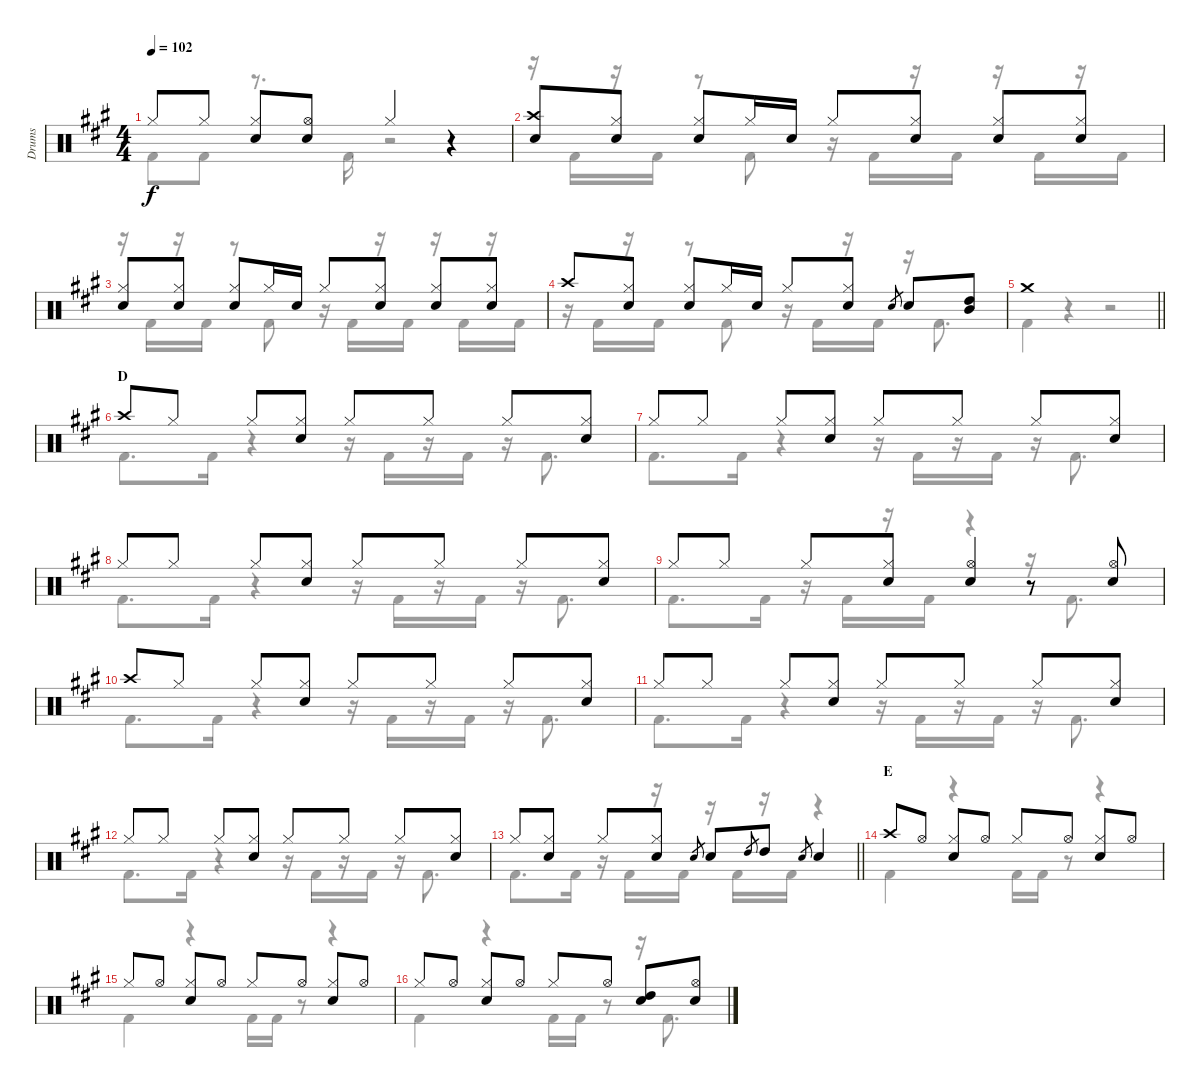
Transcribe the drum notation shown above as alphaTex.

\track ("Drums" "Drums") {instrument percussion}
\staff {score}
\articulation defaults
\voice
\ts (4 4)
\tempo 102
\clef neutral
\ks a "Hi-Hat (closed)".8{dy f} "Hi-Hat (closed)".8
("Hi-Hat (closed)" "Snare (hit) 2").8 ("Hi-Hat (open)" "Snare (hit) 2").8 "Hi-Hat (closed)".4 r.4 |
("Crash high (hit)" "Snare (hit) 2").8 ("Hi-Hat (closed)" "Snare (hit) 2").8 ("Hi-Hat (closed)" "Snare (hit) 2").8 "Hi-Hat (closed)".16 "Snare (hit) 2".16 "Hi-Hat (closed)".8 ("Hi-Hat (closed)" "Snare (hit) 2").8 ("Hi-Hat (closed)" "Snare (hit) 2").8 ("Hi-Hat (closed)" "Snare (hit) 2").8 |
("Hi-Hat (closed)" "Snare (hit) 2").8 ("Hi-Hat (closed)" "Snare (hit) 2").8 ("Hi-Hat (closed)" "Snare (hit) 2").8 "Hi-Hat (closed)".16 "Snare (hit) 2".16 "Hi-Hat (closed)".8 ("Hi-Hat (closed)" "Snare (hit) 2").8 ("Hi-Hat (closed)" "Snare (hit) 2").8 ("Hi-Hat (closed)" "Snare (hit) 2").8 |
"Crash high (hit)".8 ("Hi-Hat (closed)" "Snare (hit) 2").8 ("Hi-Hat (closed)" "Snare (hit) 2").8 "Hi-Hat (closed)".16 "Snare (hit) 2".16 "Hi-Hat (closed)".8 ("Hi-Hat (closed)" "Snare (hit) 2").8 "Snare (hit) 2".8{gr} "Snare (hit) 2".8 ("High Tom (hit)" "Mid Tom (hit)").8 |
\barLineRight lightlight "Crash medium (hit)".1
|
\section ("" "D")
"Crash high (hit)".8 "Hi-Hat (closed)".8 "Hi-Hat (closed)".8 ("Hi-Hat (closed)" "Snare (hit) 2").8 "Hi-Hat (closed)".8 "Hi-Hat (closed)".8 "Hi-Hat (closed)".8 ("Hi-Hat (closed)" "Snare (hit) 2").8 |
"Hi-Hat (closed)".8 "Hi-Hat (closed)".8 "Hi-Hat (closed)".8 ("Hi-Hat (closed)" "Snare (hit) 2").8 "Hi-Hat (closed)".8 "Hi-Hat (closed)".8 "Hi-Hat (closed)".8 ("Hi-Hat (closed)" "Snare (hit) 2").8 |
"Hi-Hat (closed)".8 "Hi-Hat (closed)".8 "Hi-Hat (closed)".8 ("Hi-Hat (closed)" "Snare (hit) 2").8 "Hi-Hat (closed)".8 "Hi-Hat (closed)".8 "Hi-Hat (closed)".8 ("Hi-Hat (closed)" "Snare (hit) 2").8 |
"Hi-Hat (closed)".8 "Hi-Hat (closed)".8 "Hi-Hat (closed)".8 ("Hi-Hat (closed)" "Snare (hit) 2").8 ("Hi-Hat (open)" "Snare (hit) 2").4 r.8 ("Hi-Hat (open)" "Snare (hit) 2").8 |
"Crash high (hit)".8 "Hi-Hat (closed)".8 "Hi-Hat (closed)".8 ("Hi-Hat (closed)" "Snare (hit) 2").8 "Hi-Hat (closed)".8 "Hi-Hat (closed)".8 "Hi-Hat (closed)".8 ("Hi-Hat (closed)" "Snare (hit) 2").8 |
"Hi-Hat (closed)".8 "Hi-Hat (closed)".8 "Hi-Hat (closed)".8 ("Hi-Hat (closed)" "Snare (hit) 2").8 "Hi-Hat (closed)".8 "Hi-Hat (closed)".8 "Hi-Hat (closed)".8 ("Hi-Hat (closed)" "Snare (hit) 2").8 |
"Hi-Hat (closed)".8 "Hi-Hat (closed)".8 "Hi-Hat (closed)".8 ("Hi-Hat (closed)" "Snare (hit) 2").8 "Hi-Hat (closed)".8 "Hi-Hat (closed)".8 "Hi-Hat (closed)".8 ("Hi-Hat (closed)" "Snare (hit) 2").8 |
\barLineRight lightlight "Hi-Hat (closed)".8
("Hi-Hat (closed)" "Snare (hit) 2").8 "Hi-Hat (closed)".8 ("Hi-Hat (closed)" "Snare (hit) 2").8 "Snare (hit) 2".8{gr} "Snare (hit) 2".8 "High Tom (hit)".8{gr} "High Tom (hit)".8 "Snare (hit) 2".8{gr} "Snare (hit) 2".4 |
\section ("" "E")
"Crash high (hit)".8 "Hi-Hat (open)".8 ("Hi-Hat (closed)" "Snare (hit) 2").8 "Hi-Hat (open)".8 "Hi-Hat (closed)".8 "Hi-Hat (open)".8 ("Hi-Hat (closed)" "Snare (hit) 2").8 "Hi-Hat (open)".8 |
"Hi-Hat (closed)".8 "Hi-Hat (open)".8 ("Hi-Hat (closed)" "Snare (hit) 2").8 "Hi-Hat (open)".8 "Hi-Hat (closed)".8 "Hi-Hat (open)".8 ("Hi-Hat (closed)" "Snare (hit) 2").8 "Hi-Hat (open)".8 |
"Hi-Hat (closed)".8 "Hi-Hat (open)".8 ("Hi-Hat (closed)" "Snare (hit) 2").8 "Hi-Hat (open)".8 "Hi-Hat (closed)".8 "Hi-Hat (open)".8 ("High Tom (hit)" "Snare (hit) 2").8 ("Hi-Hat (open)" "Snare (hit) 2").8
\voice
\clef neutral
\ottava regular
\simile none
\ks a "Kick (hit) 2".8{dy f} "Kick (hit) 2".8
r.8{d} "Kick (hit) 2".16 r.2 |
r.16 "Kick (hit) 2".16 r.16 "Kick (hit) 2".16 r.8 "Kick (hit) 2".8 r.16 "Kick (hit) 2".16 r.16 "Kick (hit) 2".16 r.16 "Kick (hit) 2".16 r.16 "Kick (hit) 2".16 |
r.16 "Kick (hit) 2".16 r.16 "Kick (hit) 2".16 r.8 "Kick (hit) 2".8 r.16 "Kick (hit) 2".16 r.16 "Kick (hit) 2".16 r.16 "Kick (hit) 2".16 r.16 "Kick (hit) 2".16 |
r.16 "Kick (hit) 2".16 r.16 "Kick (hit) 2".16 r.8 "Kick (hit) 2".8 r.16 "Kick (hit) 2".16 r.16 "Kick (hit) 2".16 r.16 "Kick (hit) 2".8{d} |
\barLineRight lightlight "Kick (hit) 2".4
r.4 r.2 |
"Kick (hit) 2".8{d} "Kick (hit) 2".16 r.4 r.16 "Kick (hit) 2".16 r.16 "Kick (hit) 2".16 r.16 "Kick (hit) 2".8{d} |
"Kick (hit) 2".8{d} "Kick (hit) 2".16 r.4 r.16 "Kick (hit) 2".16 r.16 "Kick (hit) 2".16 r.16 "Kick (hit) 2".8{d} |
"Kick (hit) 2".8{d} "Kick (hit) 2".16 r.4 r.16 "Kick (hit) 2".16 r.16 "Kick (hit) 2".16 r.16 "Kick (hit) 2".8{d} |
"Kick (hit) 2".8{d} "Kick (hit) 2".16 r.16 "Kick (hit) 2".16 r.16 "Kick (hit) 2".16 r.4 r.16 "Kick (hit) 2".8{d} |
"Kick (hit) 2".8{d} "Kick (hit) 2".16 r.4 r.16 "Kick (hit) 2".16 r.16 "Kick (hit) 2".16 r.16 "Kick (hit) 2".8{d} |
"Kick (hit) 2".8{d} "Kick (hit) 2".16 r.4 r.16 "Kick (hit) 2".16 r.16 "Kick (hit) 2".16 r.16 "Kick (hit) 2".8{d} |
"Kick (hit) 2".8{d} "Kick (hit) 2".16 r.4 r.16 "Kick (hit) 2".16 r.16 "Kick (hit) 2".16 r.16 "Kick (hit) 2".8{d} |
\barLineRight lightlight "Kick (hit) 2".8{d} "Kick (hit) 2".16
r.16 "Kick (hit) 2".16 r.16 "Kick (hit) 2".16 r.16 "Kick (hit) 2".16 r.16 "Kick (hit) 2".16 r.4 |
"Kick (hit) 2".4 r.4 "Kick (hit) 2".16 "Kick (hit) 2".16 r.8 r.4 |
"Kick (hit) 2".4 r.4 "Kick (hit) 2".16 "Kick (hit) 2".16 r.8 r.4 |
"Kick (hit) 2".4 r.4 "Kick (hit) 2".16 "Kick (hit) 2".16 r.8 r.16 "Kick (hit) 2".8{d}
